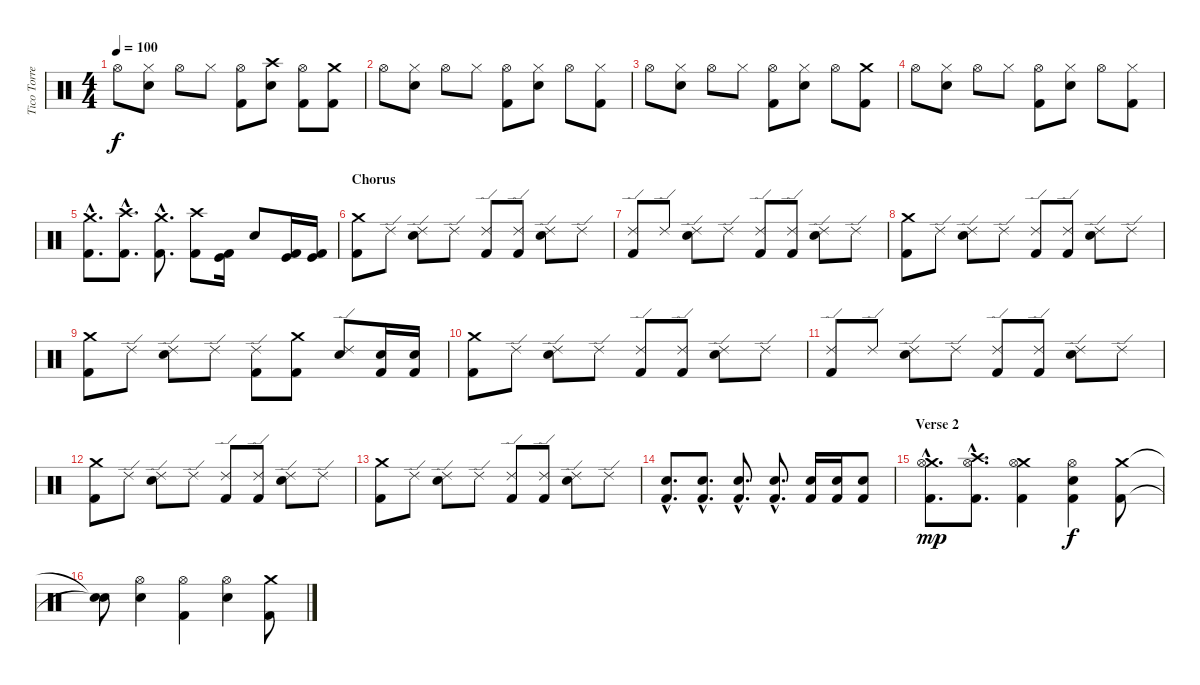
\track ("Tico Torres" "Tico Torre") {instrument percussion}
\staff {score}
\articulation defaults
\ts (4 4)
\tempo 100
\clef neutral
\ks c "Hi-Hat (open)".8{dy f}
("Hi-Hat (closed)" "Electric Snare (hit)").8 "Hi-Hat (open)".8 "Hi-Hat (closed)".8 ("Hi-Hat (open)" "Kick (hit) 2").8 ("Crash high (hit)" "Electric Snare (hit)").8 ("Hi-Hat (open)" "Kick (hit) 2").8 ("Crash medium (hit)" "Kick (hit) 2").8 |
"Hi-Hat (open)".8 ("Hi-Hat (closed)" "Electric Snare (hit)").8 "Hi-Hat (open)".8 "Hi-Hat (closed)".8 ("Hi-Hat (open)" "Kick (hit) 2").8 ("Hi-Hat (closed)" "Electric Snare (hit)").8 "Hi-Hat (open)".8 ("Hi-Hat (closed)" "Kick (hit) 2").8 |
"Hi-Hat (open)".8 ("Hi-Hat (closed)" "Electric Snare (hit)").8 "Hi-Hat (open)".8 "Hi-Hat (closed)".8 ("Hi-Hat (open)" "Kick (hit) 2").8 ("Hi-Hat (closed)" "Electric Snare (hit)").8 "Hi-Hat (open)".8 ("Crash medium (hit)" "Kick (hit) 2").8 |
"Hi-Hat (open)".8 ("Hi-Hat (closed)" "Electric Snare (hit)").8 "Hi-Hat (open)".8 "Hi-Hat (closed)".8 ("Hi-Hat (open)" "Kick (hit) 2").8 ("Hi-Hat (closed)" "Electric Snare (hit)").8 "Hi-Hat (open)".8 ("Hi-Hat (closed)" "Kick (hit) 2").8 |
("Crash medium (hit)"{hac} "Kick (hit) 2"{hac}).8{d} ("Crash high (hit)"{hac} "Kick (hit) 2"{hac}).8{d} ("Crash medium (hit)"{hac} "Kick (hit) 2"{hac}).8{d} ("Crash high (hit)" "Kick (hit) 2").8 ("Kick (hit)" "Kick (hit) 2").16 "Electric Snare (hit)".8 ("Kick (hit)" "Kick (hit) 2").16 ("Kick (hit)" "Kick (hit) 2").16 |
\section ("" "Chorus")
("Crash medium (hit)" "Kick (hit) 2").8 "Ride (edge) 2".8 ("Ride (edge) 2" "Snare (hit) 2").8 "Ride (edge) 2".8 ("Ride (edge) 2" "Kick (hit) 2").8 ("Ride (edge) 2" "Kick (hit) 2").8 ("Ride (edge) 2" "Snare (hit) 2").8 "Ride (edge) 2".8 |
("Ride (edge) 2" "Kick (hit) 2").8 "Ride (edge) 2".8 ("Ride (edge) 2" "Snare (hit) 2").8 "Ride (edge) 2".8 ("Ride (edge) 2" "Kick (hit) 2").8 ("Ride (edge) 2" "Kick (hit) 2").8 ("Ride (edge) 2" "Snare (hit) 2").8 "Ride (edge) 2".8 |
("Crash medium (hit)" "Kick (hit) 2").8 "Ride (edge) 2".8 ("Ride (edge) 2" "Snare (hit) 2").8 "Ride (edge) 2".8 ("Ride (edge) 2" "Kick (hit) 2").8 ("Ride (edge) 2" "Kick (hit) 2").8 ("Ride (edge) 2" "Snare (hit) 2").8 "Ride (edge) 2".8 |
("Crash medium (hit)" "Kick (hit) 2").8 "Ride (edge) 2".8 ("Ride (edge) 2" "Snare (hit) 2").8 "Ride (edge) 2".8 ("Ride (edge) 2" "Kick (hit) 2").8 ("Crash medium (hit)" "Kick (hit) 2").8 ("Ride (edge) 2" "Snare (hit) 2").8 ("Snare (hit) 2" "Kick (hit) 2").16 ("Snare (hit) 2" "Kick (hit) 2").16 |
("Crash medium (hit)" "Kick (hit) 2").8 "Ride (edge) 2".8 ("Ride (edge) 2" "Snare (hit) 2").8 "Ride (edge) 2".8 ("Ride (edge) 2" "Kick (hit) 2").8 ("Ride (edge) 2" "Kick (hit) 2").8 ("Ride (edge) 2" "Snare (hit) 2").8 "Ride (edge) 2".8 |
("Ride (edge) 2" "Kick (hit) 2").8 "Ride (edge) 2".8 ("Ride (edge) 2" "Snare (hit) 2").8 "Ride (edge) 2".8 ("Ride (edge) 2" "Kick (hit) 2").8 ("Ride (edge) 2" "Kick (hit) 2").8 ("Ride (edge) 2" "Snare (hit) 2").8 "Ride (edge) 2".8 |
("Crash medium (hit)" "Kick (hit) 2").8 "Ride (edge) 2".8 ("Ride (edge) 2" "Snare (hit) 2").8 "Ride (edge) 2".8 ("Ride (edge) 2" "Kick (hit) 2").8 ("Ride (edge) 2" "Kick (hit) 2").8 ("Ride (edge) 2" "Snare (hit) 2").8 "Ride (edge) 2".8 |
("Crash medium (hit)" "Kick (hit) 2").8 "Ride (edge) 2".8 ("Ride (edge) 2" "Snare (hit) 2").8 "Ride (edge) 2".8 ("Ride (edge) 2" "Kick (hit) 2").8 ("Ride (edge) 2" "Kick (hit) 2").8 ("Ride (edge) 2" "Snare (hit) 2").8 "Ride (edge) 2".8 |
("Electric Snare (hit)"{hac} "Kick (hit) 2"{hac}).8{d} ("Electric Snare (hit)"{hac} "Kick (hit) 2"{hac}).8{d} ("Electric Snare (hit)"{hac} "Kick (hit) 2"{hac}).8{d} ("Electric Snare (hit)"{hac} "Kick (hit) 2"{hac}).8{d} ("Electric Snare (hit)" "Kick (hit) 2").16 ("Electric Snare (hit)" "Kick (hit) 2").16 ("Electric Snare (hit)" "Kick (hit) 2").8 |
\section ("" "Verse 2")
("Crash medium (hit)"{hac} "Kick (hit) 2"{hac} "Hi-Hat (open)"{hac}).8{d dy mp} ("Crash high (hit)"{hac} "Kick (hit) 2"{hac} "Hi-Hat (open)"{hac}).8{d} ("Crash medium (hit)" "Kick (hit) 2" "Hi-Hat (open)").4 ("Hi-Hat (open)" "Electric Snare (hit)" "Kick (hit) 2").4{dy f} ("Crash medium (hit)" "Kick (hit) 2").8 |
("Snare (hit)"{t} "Snare (hit)"{t}).8 ("Hi-Hat (open)" "Electric Snare (hit)").4 ("Hi-Hat (open)" "Kick (hit) 2").4 ("Hi-Hat (open)" "Electric Snare (hit)").4 ("Crash medium (hit)" "Kick (hit) 2").8
